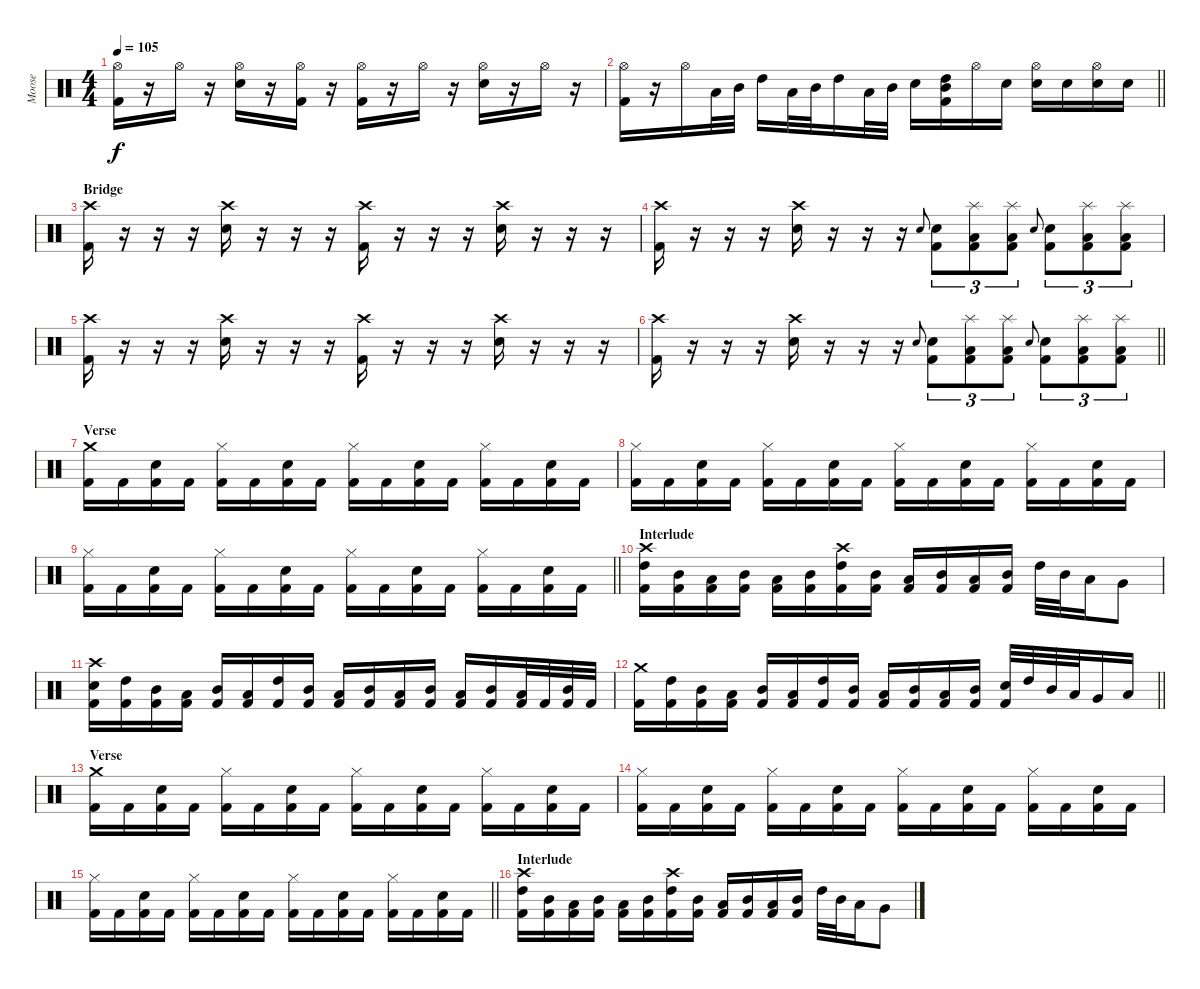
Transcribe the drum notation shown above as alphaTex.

\track ("Moose" "Moose") {instrument percussion}
\staff {score}
\articulation defaults
\ts (4 4)
\tempo 105
\clef neutral
\ks c
("Hi-Hat (open)" "Kick (hit) 2").16{dy f} r.16 "Hi-Hat (open)".16 r.16 ("Hi-Hat (open)" "Electric Snare (hit)").16 r.16 ("Hi-Hat (open)" "Kick (hit) 2").16 r.16 ("Hi-Hat (open)" "Kick (hit) 2").16 r.16 "Hi-Hat (open)".16 r.16 ("Hi-Hat (open)" "Electric Snare (hit)").16 r.16 "Hi-Hat (open)".16 r.16 |
\barLineRight lightlight
("Hi-Hat (open)" "Kick (hit) 2").16 r.16 "Hi-Hat (open)".16 "Low Tom (hit)".32 "Mid Tom (hit)".32 "High Tom (hit)".16 "Low Tom (hit)".32 "Mid Tom (hit)".32 "High Tom (hit)".16 "Low Tom (hit)".32 "Mid Tom (hit)".32 "Electric Snare (hit)".16 ("Mid Tom (hit)" "High Tom (hit)" "Kick (hit) 2").16 "Hi-Hat (open)".16 "Electric Snare (hit)".16 ("Hi-Hat (open)" "Electric Snare (hit)").16 "Electric Snare (hit)".16 ("Hi-Hat (open)" "Electric Snare (hit)").16 "Electric Snare (hit)".16 |
\section ("" "Bridge")
("Crash high (hit)" "Kick (hit) 2").16 r.16 r.16 r.16 ("Crash high (hit)" "Electric Snare (hit)").16 r.16 r.16 r.16 ("Crash high (hit)" "Kick (hit) 2").16 r.16 r.16 r.16 ("Crash high (hit)" "Electric Snare (hit)").16 r.16 r.16 r.16 |
("Crash high (hit)" "Kick (hit) 2").16 r.16 r.16 r.16 ("Crash high (hit)" "Electric Snare (hit)").16 r.16 r.16 r.16 "Electric Snare (hit)".8{gr onbeat} ("Electric Snare (hit)" "Kick (hit) 2").8{tu (3 2)} ("Splash (hit)" "Low Tom (hit)" "Kick (hit) 2").8{tu (3 2)} ("Splash (hit)" "Low Tom (hit)" "Kick (hit) 2").8{tu (3 2)} "Electric Snare (hit)".8{gr onbeat} ("Electric Snare (hit)" "Kick (hit) 2").8{tu (3 2)} ("Splash (hit)" "Low Tom (hit)" "Kick (hit) 2").8{tu (3 2)} ("Splash (hit)" "Low Tom (hit)" "Kick (hit) 2").8{tu (3 2)} |
("Crash high (hit)" "Kick (hit) 2").16 r.16 r.16 r.16 ("Crash high (hit)" "Electric Snare (hit)").16 r.16 r.16 r.16 ("Crash high (hit)" "Kick (hit) 2").16 r.16 r.16 r.16 ("Crash high (hit)" "Electric Snare (hit)").16 r.16 r.16 r.16 |
\barLineRight lightlight
("Crash high (hit)" "Kick (hit) 2").16 r.16 r.16 r.16 ("Crash high (hit)" "Electric Snare (hit)").16 r.16 r.16 r.16 "Electric Snare (hit)".8{gr onbeat} ("Electric Snare (hit)" "Kick (hit) 2").8{tu (3 2)} ("Splash (hit)" "Low Tom (hit)" "Kick (hit) 2").8{tu (3 2)} ("Splash (hit)" "Low Tom (hit)" "Kick (hit) 2").8{tu (3 2)} "Electric Snare (hit)".8{gr onbeat} ("Electric Snare (hit)" "Kick (hit) 2").8{tu (3 2)} ("Splash (hit)" "Low Tom (hit)" "Kick (hit) 2").8{tu (3 2)} ("Splash (hit)" "Low Tom (hit)" "Kick (hit) 2").8{tu (3 2)} |
\section ("" "Verse")
("Crash medium (hit)" "Kick (hit) 2").16 "Kick (hit) 2".16 ("Electric Snare (hit)" "Kick (hit) 2").16 "Kick (hit) 2".16 ("Hi-Hat (closed)" "Kick (hit) 2").16 "Kick (hit) 2".16 ("Electric Snare (hit)" "Kick (hit) 2").16 "Kick (hit) 2".16 ("Hi-Hat (closed)" "Kick (hit) 2").16 "Kick (hit) 2".16 ("Electric Snare (hit)" "Kick (hit) 2").16 "Kick (hit) 2".16 ("Hi-Hat (closed)" "Kick (hit) 2").16 "Kick (hit) 2".16 ("Electric Snare (hit)" "Kick (hit) 2").16 "Kick (hit) 2".16 |
("Hi-Hat (closed)" "Kick (hit) 2").16 "Kick (hit) 2".16 ("Electric Snare (hit)" "Kick (hit) 2").16 "Kick (hit) 2".16 ("Hi-Hat (closed)" "Kick (hit) 2").16 "Kick (hit) 2".16 ("Electric Snare (hit)" "Kick (hit) 2").16 "Kick (hit) 2".16 ("Hi-Hat (closed)" "Kick (hit) 2").16 "Kick (hit) 2".16 ("Electric Snare (hit)" "Kick (hit) 2").16 "Kick (hit) 2".16 ("Hi-Hat (closed)" "Kick (hit) 2").16 "Kick (hit) 2".16 ("Electric Snare (hit)" "Kick (hit) 2").16 "Kick (hit) 2".16 |
\barLineRight lightlight
("Hi-Hat (closed)" "Kick (hit) 2").16 "Kick (hit) 2".16 ("Electric Snare (hit)" "Kick (hit) 2").16 "Kick (hit) 2".16 ("Hi-Hat (closed)" "Kick (hit) 2").16 "Kick (hit) 2".16 ("Electric Snare (hit)" "Kick (hit) 2").16 "Kick (hit) 2".16 ("Hi-Hat (closed)" "Kick (hit) 2").16 "Kick (hit) 2".16 ("Electric Snare (hit)" "Kick (hit) 2").16 "Kick (hit) 2".16 ("Hi-Hat (closed)" "Kick (hit) 2").16 "Kick (hit) 2".16 ("Electric Snare (hit)" "Kick (hit) 2").16 "Kick (hit) 2".16 |
\section ("" "Interlude")
("Crash high (hit)" "High Tom (hit)" "Kick (hit) 2").16 ("Mid Tom (hit)" "Kick (hit) 2").16 ("Low Tom (hit)" "Kick (hit) 2").16 ("Mid Tom (hit)" "Kick (hit) 2").16 ("Low Tom (hit)" "Kick (hit) 2").16 ("Mid Tom (hit)" "Kick (hit) 2").16 ("Crash high (hit)" "High Tom (hit)" "Kick (hit) 2").16 ("Mid Tom (hit)" "Kick (hit) 2").16 ("Low Tom (hit)" "Kick (hit) 2").16 ("Mid Tom (hit)" "Kick (hit) 2").16 ("Low Tom (hit)" "Kick (hit) 2").16 ("Mid Tom (hit)" "Kick (hit) 2").16 "High Tom (hit)".32 "Mid Tom (hit)".32 "Low Tom (hit)".16 "Very Low Tom (hit)".8 |
("Crash high (hit)" "Electric Snare (hit)" "Kick (hit) 2").16 ("High Tom (hit)" "Kick (hit) 2").16 ("Mid Tom (hit)" "Kick (hit) 2").16 ("Low Tom (hit)" "Kick (hit) 2").16 ("Mid Tom (hit)" "Kick (hit) 2").16 ("Low Tom (hit)" "Kick (hit) 2").16 ("High Tom (hit)" "Kick (hit) 2").16 ("Mid Tom (hit)" "Kick (hit) 2").16 ("Low Tom (hit)" "Kick (hit) 2").16 ("Mid Tom (hit)" "Kick (hit) 2").16 ("Low Tom (hit)" "Kick (hit) 2").16 ("Mid Tom (hit)" "Kick (hit) 2").16 ("Low Tom (hit)" "Kick (hit) 2").16 ("Mid Tom (hit)" "Kick (hit) 2").16 ("Low Tom (hit)" "Kick (hit) 2").32 "Kick (hit) 2".32 ("Mid Tom (hit)" "Kick (hit) 2").32 "Kick (hit) 2".32 |
\barLineRight lightlight
("Crash medium (hit)" "Kick (hit) 2").16 ("High Tom (hit)" "Kick (hit) 2").16 ("Mid Tom (hit)" "Kick (hit) 2").16 ("Low Tom (hit)" "Kick (hit) 2").16 ("Mid Tom (hit)" "Kick (hit) 2").16 ("Low Tom (hit)" "Kick (hit) 2").16 ("High Tom (hit)" "Kick (hit) 2").16 ("Mid Tom (hit)" "Kick (hit) 2").16 ("Low Tom (hit)" "Kick (hit) 2").16 ("Mid Tom (hit)" "Kick (hit) 2").16 ("Low Tom (hit)" "Kick (hit) 2").16 ("Mid Tom (hit)" "Kick (hit) 2").16 ("Electric Snare (hit)" "Kick (hit) 2").32 "High Tom (hit)".32 "Mid Tom (hit)".32 "Low Tom (hit)".32 "Very Low Tom (hit)".16 "Low Tom (hit)".16 |
\section ("" "Verse")
("Crash medium (hit)" "Kick (hit) 2").16 "Kick (hit) 2".16 ("Electric Snare (hit)" "Kick (hit) 2").16 "Kick (hit) 2".16 ("Hi-Hat (closed)" "Kick (hit) 2").16 "Kick (hit) 2".16 ("Electric Snare (hit)" "Kick (hit) 2").16 "Kick (hit) 2".16 ("Hi-Hat (closed)" "Kick (hit) 2").16 "Kick (hit) 2".16 ("Electric Snare (hit)" "Kick (hit) 2").16 "Kick (hit) 2".16 ("Hi-Hat (closed)" "Kick (hit) 2").16 "Kick (hit) 2".16 ("Electric Snare (hit)" "Kick (hit) 2").16 "Kick (hit) 2".16 |
("Hi-Hat (closed)" "Kick (hit) 2").16 "Kick (hit) 2".16 ("Electric Snare (hit)" "Kick (hit) 2").16 "Kick (hit) 2".16 ("Hi-Hat (closed)" "Kick (hit) 2").16 "Kick (hit) 2".16 ("Electric Snare (hit)" "Kick (hit) 2").16 "Kick (hit) 2".16 ("Hi-Hat (closed)" "Kick (hit) 2").16 "Kick (hit) 2".16 ("Electric Snare (hit)" "Kick (hit) 2").16 "Kick (hit) 2".16 ("Hi-Hat (closed)" "Kick (hit) 2").16 "Kick (hit) 2".16 ("Electric Snare (hit)" "Kick (hit) 2").16 "Kick (hit) 2".16 |
\barLineRight lightlight
("Hi-Hat (closed)" "Kick (hit) 2").16 "Kick (hit) 2".16 ("Electric Snare (hit)" "Kick (hit) 2").16 "Kick (hit) 2".16 ("Hi-Hat (closed)" "Kick (hit) 2").16 "Kick (hit) 2".16 ("Electric Snare (hit)" "Kick (hit) 2").16 "Kick (hit) 2".16 ("Hi-Hat (closed)" "Kick (hit) 2").16 "Kick (hit) 2".16 ("Electric Snare (hit)" "Kick (hit) 2").16 "Kick (hit) 2".16 ("Hi-Hat (closed)" "Kick (hit) 2").16 "Kick (hit) 2".16 ("Electric Snare (hit)" "Kick (hit) 2").16 "Kick (hit) 2".16 |
\section ("" "Interlude")
("Crash high (hit)" "High Tom (hit)" "Kick (hit) 2").16 ("Mid Tom (hit)" "Kick (hit) 2").16 ("Low Tom (hit)" "Kick (hit) 2").16 ("Mid Tom (hit)" "Kick (hit) 2").16 ("Low Tom (hit)" "Kick (hit) 2").16 ("Mid Tom (hit)" "Kick (hit) 2").16 ("Crash high (hit)" "High Tom (hit)" "Kick (hit) 2").16 ("Mid Tom (hit)" "Kick (hit) 2").16 ("Low Tom (hit)" "Kick (hit) 2").16 ("Mid Tom (hit)" "Kick (hit) 2").16 ("Low Tom (hit)" "Kick (hit) 2").16 ("Mid Tom (hit)" "Kick (hit) 2").16 "High Tom (hit)".32 "Mid Tom (hit)".32 "Low Tom (hit)".16 "Very Low Tom (hit)".8
